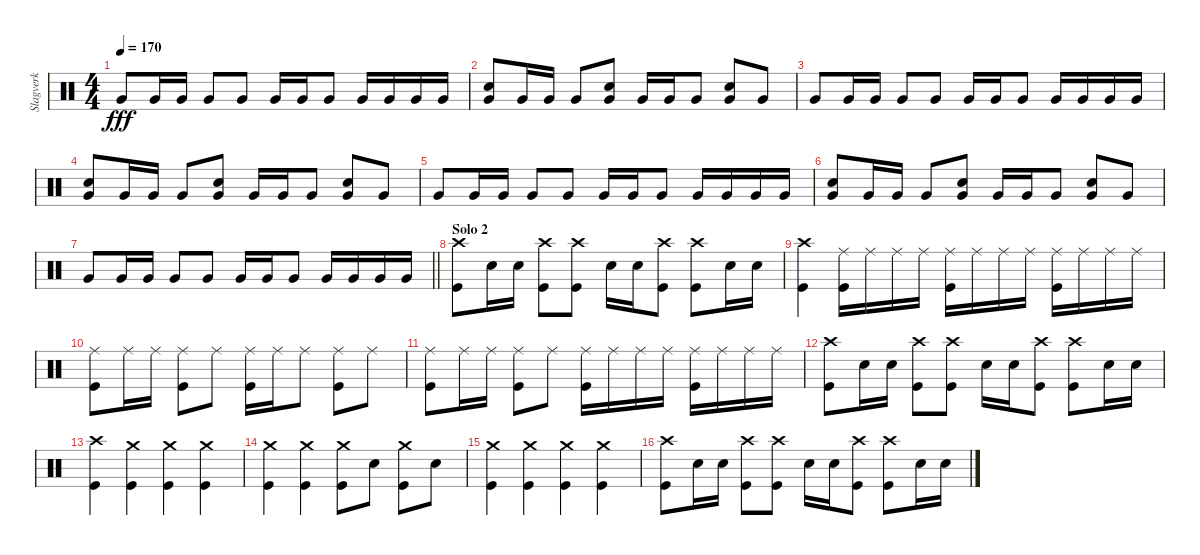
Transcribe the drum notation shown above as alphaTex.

\track ("Slagverk" "Slagverk") {instrument percussion}
\staff {score}
\articulation defaults
\ts (4 4)
\tempo 170
\clef neutral
\ks c "Very Low Tom (hit)".8{dy fff} "Very Low Tom (hit)".16 "Very Low Tom (hit)".16 "Very Low Tom (hit)".8 "Very Low Tom (hit)".8 "Very Low Tom (hit)".16 "Very Low Tom (hit)".16 "Very Low Tom (hit)".8 "Very Low Tom (hit)".16 "Very Low Tom (hit)".16 "Very Low Tom (hit)".16 "Very Low Tom (hit)".16
|
("Electric Snare (hit)" "Very Low Tom (hit)").8 "Very Low Tom (hit)".16 "Very Low Tom (hit)".16 "Very Low Tom (hit)".8 ("Electric Snare (hit)" "Very Low Tom (hit)").8 "Very Low Tom (hit)".16 "Very Low Tom (hit)".16 "Very Low Tom (hit)".8 ("Electric Snare (hit)" "Very Low Tom (hit)").8 "Very Low Tom (hit)".8 |
"Very Low Tom (hit)".8 "Very Low Tom (hit)".16 "Very Low Tom (hit)".16 "Very Low Tom (hit)".8 "Very Low Tom (hit)".8 "Very Low Tom (hit)".16 "Very Low Tom (hit)".16 "Very Low Tom (hit)".8 "Very Low Tom (hit)".16 "Very Low Tom (hit)".16 "Very Low Tom (hit)".16 "Very Low Tom (hit)".16 |
("Electric Snare (hit)" "Very Low Tom (hit)").8 "Very Low Tom (hit)".16 "Very Low Tom (hit)".16 "Very Low Tom (hit)".8 ("Electric Snare (hit)" "Very Low Tom (hit)").8 "Very Low Tom (hit)".16 "Very Low Tom (hit)".16 "Very Low Tom (hit)".8 ("Electric Snare (hit)" "Very Low Tom (hit)").8 "Very Low Tom (hit)".8 |
"Very Low Tom (hit)".8 "Very Low Tom (hit)".16 "Very Low Tom (hit)".16 "Very Low Tom (hit)".8 "Very Low Tom (hit)".8 "Very Low Tom (hit)".16 "Very Low Tom (hit)".16 "Very Low Tom (hit)".8 "Very Low Tom (hit)".16 "Very Low Tom (hit)".16 "Very Low Tom (hit)".16 "Very Low Tom (hit)".16 |
("Electric Snare (hit)" "Very Low Tom (hit)").8 "Very Low Tom (hit)".16 "Very Low Tom (hit)".16 "Very Low Tom (hit)".8 ("Electric Snare (hit)" "Very Low Tom (hit)").8 "Very Low Tom (hit)".16 "Very Low Tom (hit)".16 "Very Low Tom (hit)".8 ("Electric Snare (hit)" "Very Low Tom (hit)").8 "Very Low Tom (hit)".8 |
\barLineRight lightlight "Very Low Tom (hit)".8 "Very Low Tom (hit)".16 "Very Low Tom (hit)".16 "Very Low Tom (hit)".8 "Very Low Tom (hit)".8 "Very Low Tom (hit)".16 "Very Low Tom (hit)".16 "Very Low Tom (hit)".8 "Very Low Tom (hit)".16 "Very Low Tom (hit)".16 "Very Low Tom (hit)".16 "Very Low Tom (hit)".16
|
\section ("" "Solo 2")
("Crash high (hit)" "Kick (hit)").8 "Electric Snare (hit)".16 "Electric Snare (hit)".16 ("Crash high (hit)" "Kick (hit)").8 ("Crash high (hit)" "Kick (hit)").8 "Electric Snare (hit)".16 "Electric Snare (hit)".16 ("Crash high (hit)" "Kick (hit)").8 ("Crash high (hit)" "Kick (hit)").8 "Electric Snare (hit)".16 "Electric Snare (hit)".16 |
("Crash high (hit)" "Kick (hit)").4 ("Ride (middle)" "Kick (hit)").16 "Ride (middle)".16 "Ride (middle)".16 "Ride (middle)".16 ("Ride (middle)" "Kick (hit)").16 "Ride (middle)".16 "Ride (middle)".16 "Ride (middle)".16 ("Ride (middle)" "Kick (hit)").16 "Ride (middle)".16 "Ride (middle)".16 "Ride (middle)".16 |
("Ride (middle)" "Kick (hit)").8 "Ride (middle)".16 "Ride (middle)".16 ("Ride (middle)" "Kick (hit)").8 "Ride (middle)".8 ("Ride (middle)" "Kick (hit)").16 "Ride (middle)".16 "Ride (middle)".8 ("Ride (middle)" "Kick (hit)").8 "Ride (middle)".8 |
("Ride (middle)" "Kick (hit)").8 "Ride (middle)".16 "Ride (middle)".16 ("Ride (middle)" "Kick (hit)").8 "Ride (middle)".8 ("Ride (middle)" "Kick (hit)").16 "Ride (middle)".16 "Ride (middle)".16 "Ride (middle)".16 ("Ride (middle)" "Kick (hit)").16 "Ride (middle)".16 "Ride (middle)".16 "Ride (middle)".16 |
("Crash high (hit)" "Kick (hit)").8 "Electric Snare (hit)".16 "Electric Snare (hit)".16 ("Crash high (hit)" "Kick (hit)").8 ("Crash high (hit)" "Kick (hit)").8 "Electric Snare (hit)".16 "Electric Snare (hit)".16 ("Crash high (hit)" "Kick (hit)").8 ("Crash high (hit)" "Kick (hit)").8 "Electric Snare (hit)".16 "Electric Snare (hit)".16 |
("Crash high (hit)" "Kick (hit)").4 ("Crash medium (hit)" "Kick (hit)").4 ("Crash medium (hit)" "Kick (hit)").4 ("Crash medium (hit)" "Kick (hit)").4 |
("Crash medium (hit)" "Kick (hit)").4 ("Crash medium (hit)" "Kick (hit)").4 ("Crash medium (hit)" "Kick (hit)").8 "Electric Snare (hit)".8 ("Crash medium (hit)" "Kick (hit)").8 "Electric Snare (hit)".8 |
("Crash medium (hit)" "Kick (hit)").4 ("Crash medium (hit)" "Kick (hit)").4 ("Crash medium (hit)" "Kick (hit)").4 ("Crash medium (hit)" "Kick (hit)").4 |
("Crash high (hit)" "Kick (hit)").8 "Electric Snare (hit)".16 "Electric Snare (hit)".16 ("Crash high (hit)" "Kick (hit)").8 ("Crash high (hit)" "Kick (hit)").8 "Electric Snare (hit)".16 "Electric Snare (hit)".16 ("Crash high (hit)" "Kick (hit)").8 ("Crash high (hit)" "Kick (hit)").8 "Electric Snare (hit)".16 "Electric Snare (hit)".16
